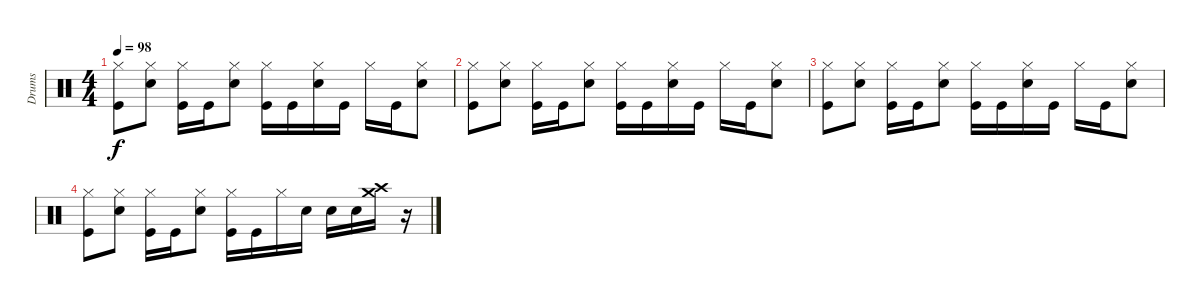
\track ("Drums" "Drums") {instrument percussion}
\staff {score}
\articulation defaults
\ts (4 4)
\tempo 98
\clef neutral
\ks c
("Hi-Hat (closed)" "Kick (hit)").8{dy f} ("Hi-Hat (closed)" "Electric Snare (hit)").8 ("Hi-Hat (closed)" "Kick (hit)").16 "Kick (hit)".16 ("Hi-Hat (closed)" "Electric Snare (hit)").8 ("Hi-Hat (closed)" "Kick (hit)").16 "Kick (hit)".16 ("Hi-Hat (closed)" "Electric Snare (hit)").16 "Kick (hit)".16 "Hi-Hat (closed)".16 "Kick (hit)".16 ("Hi-Hat (closed)" "Electric Snare (hit)").8 |
("Hi-Hat (closed)" "Kick (hit)").8 ("Hi-Hat (closed)" "Electric Snare (hit)").8 ("Hi-Hat (closed)" "Kick (hit)").16 "Kick (hit)".16 ("Hi-Hat (closed)" "Electric Snare (hit)").8 ("Hi-Hat (closed)" "Kick (hit)").16 "Kick (hit)".16 ("Hi-Hat (closed)" "Electric Snare (hit)").16 "Kick (hit)".16 "Hi-Hat (closed)".16 "Kick (hit)".16 ("Hi-Hat (closed)" "Electric Snare (hit)").8 |
("Hi-Hat (closed)" "Kick (hit)").8 ("Hi-Hat (closed)" "Electric Snare (hit)").8 ("Hi-Hat (closed)" "Kick (hit)").16 "Kick (hit)".16 ("Hi-Hat (closed)" "Electric Snare (hit)").8 ("Hi-Hat (closed)" "Kick (hit)").16 "Kick (hit)".16 ("Hi-Hat (closed)" "Electric Snare (hit)").16 "Kick (hit)".16 "Hi-Hat (closed)".16 "Kick (hit)".16 ("Hi-Hat (closed)" "Electric Snare (hit)").8 |
("Hi-Hat (closed)" "Kick (hit)").8 ("Hi-Hat (closed)" "Electric Snare (hit)").8 ("Hi-Hat (closed)" "Kick (hit)").16 "Kick (hit)".16 ("Hi-Hat (closed)" "Electric Snare (hit)").8 ("Hi-Hat (closed)" "Kick (hit)").16 "Kick (hit)".16 "Hi-Hat (closed)".16 "Electric Snare (hit)".16 "Electric Snare (hit)".16 "Electric Snare (hit)".16 ("Crash medium (hit)" "Crash high (hit)").16 r.16
